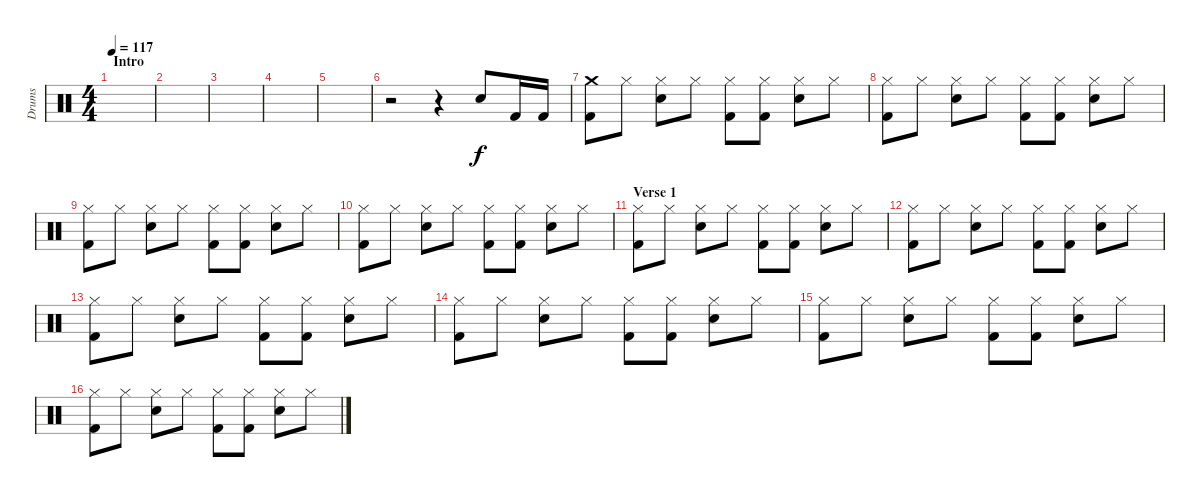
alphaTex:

\track ("Drums" "Drums") {instrument percussion}
\staff {score}
\articulation defaults
\ts (4 4)
\section ("" "Intro")
\tempo 117
\clef neutral
\ks c
|
|
|
|
|
r.2 r.4 "Electric Snare (hit)".8 "Kick (hit) 2".16 "Kick (hit) 2".16 |
("Crash medium (hit)" "Kick (hit) 2").8 "Hi-Hat (closed)".8 ("Hi-Hat (closed)" "Snare (hit) 2").8 "Hi-Hat (closed)".8 ("Hi-Hat (closed)" "Kick (hit) 2").8 ("Hi-Hat (closed)" "Kick (hit) 2").8 ("Hi-Hat (closed)" "Snare (hit) 2").8 "Hi-Hat (closed)".8 |
("Hi-Hat (closed)" "Kick (hit) 2").8 "Hi-Hat (closed)".8 ("Hi-Hat (closed)" "Snare (hit) 2").8 "Hi-Hat (closed)".8 ("Hi-Hat (closed)" "Kick (hit) 2").8 ("Hi-Hat (closed)" "Kick (hit) 2").8 ("Hi-Hat (closed)" "Snare (hit) 2").8 "Hi-Hat (closed)".8 |
("Hi-Hat (closed)" "Kick (hit) 2").8 "Hi-Hat (closed)".8 ("Hi-Hat (closed)" "Snare (hit) 2").8 "Hi-Hat (closed)".8 ("Hi-Hat (closed)" "Kick (hit) 2").8 ("Hi-Hat (closed)" "Kick (hit) 2").8 ("Hi-Hat (closed)" "Snare (hit) 2").8 "Hi-Hat (closed)".8 |
("Hi-Hat (closed)" "Kick (hit) 2").8 "Hi-Hat (closed)".8 ("Hi-Hat (closed)" "Snare (hit) 2").8 "Hi-Hat (closed)".8 ("Hi-Hat (closed)" "Kick (hit) 2").8 ("Hi-Hat (closed)" "Kick (hit) 2").8 ("Hi-Hat (closed)" "Snare (hit) 2").8 "Hi-Hat (closed)".8 |
\section ("" "Verse 1")
("Hi-Hat (closed)" "Kick (hit) 2").8 "Hi-Hat (closed)".8 ("Hi-Hat (closed)" "Snare (hit) 2").8 "Hi-Hat (closed)".8 ("Hi-Hat (closed)" "Kick (hit) 2").8 ("Hi-Hat (closed)" "Kick (hit) 2").8 ("Hi-Hat (closed)" "Snare (hit) 2").8 "Hi-Hat (closed)".8 |
("Hi-Hat (closed)" "Kick (hit) 2").8 "Hi-Hat (closed)".8 ("Hi-Hat (closed)" "Snare (hit) 2").8 "Hi-Hat (closed)".8 ("Hi-Hat (closed)" "Kick (hit) 2").8 ("Hi-Hat (closed)" "Kick (hit) 2").8 ("Hi-Hat (closed)" "Snare (hit) 2").8 "Hi-Hat (closed)".8 |
("Hi-Hat (closed)" "Kick (hit) 2").8 "Hi-Hat (closed)".8 ("Hi-Hat (closed)" "Snare (hit) 2").8 "Hi-Hat (closed)".8 ("Hi-Hat (closed)" "Kick (hit) 2").8 ("Hi-Hat (closed)" "Kick (hit) 2").8 ("Hi-Hat (closed)" "Snare (hit) 2").8 "Hi-Hat (closed)".8 |
("Hi-Hat (closed)" "Kick (hit) 2").8 "Hi-Hat (closed)".8 ("Hi-Hat (closed)" "Snare (hit) 2").8 "Hi-Hat (closed)".8 ("Hi-Hat (closed)" "Kick (hit) 2").8 ("Hi-Hat (closed)" "Kick (hit) 2").8 ("Hi-Hat (closed)" "Snare (hit) 2").8 "Hi-Hat (closed)".8 |
("Hi-Hat (closed)" "Kick (hit) 2").8 "Hi-Hat (closed)".8 ("Hi-Hat (closed)" "Snare (hit) 2").8 "Hi-Hat (closed)".8 ("Hi-Hat (closed)" "Kick (hit) 2").8 ("Hi-Hat (closed)" "Kick (hit) 2").8 ("Hi-Hat (closed)" "Snare (hit) 2").8 "Hi-Hat (closed)".8 |
("Hi-Hat (closed)" "Kick (hit) 2").8 "Hi-Hat (closed)".8 ("Hi-Hat (closed)" "Snare (hit) 2").8 "Hi-Hat (closed)".8 ("Hi-Hat (closed)" "Kick (hit) 2").8 ("Hi-Hat (closed)" "Kick (hit) 2").8 ("Hi-Hat (closed)" "Snare (hit) 2").8 "Hi-Hat (closed)".8
